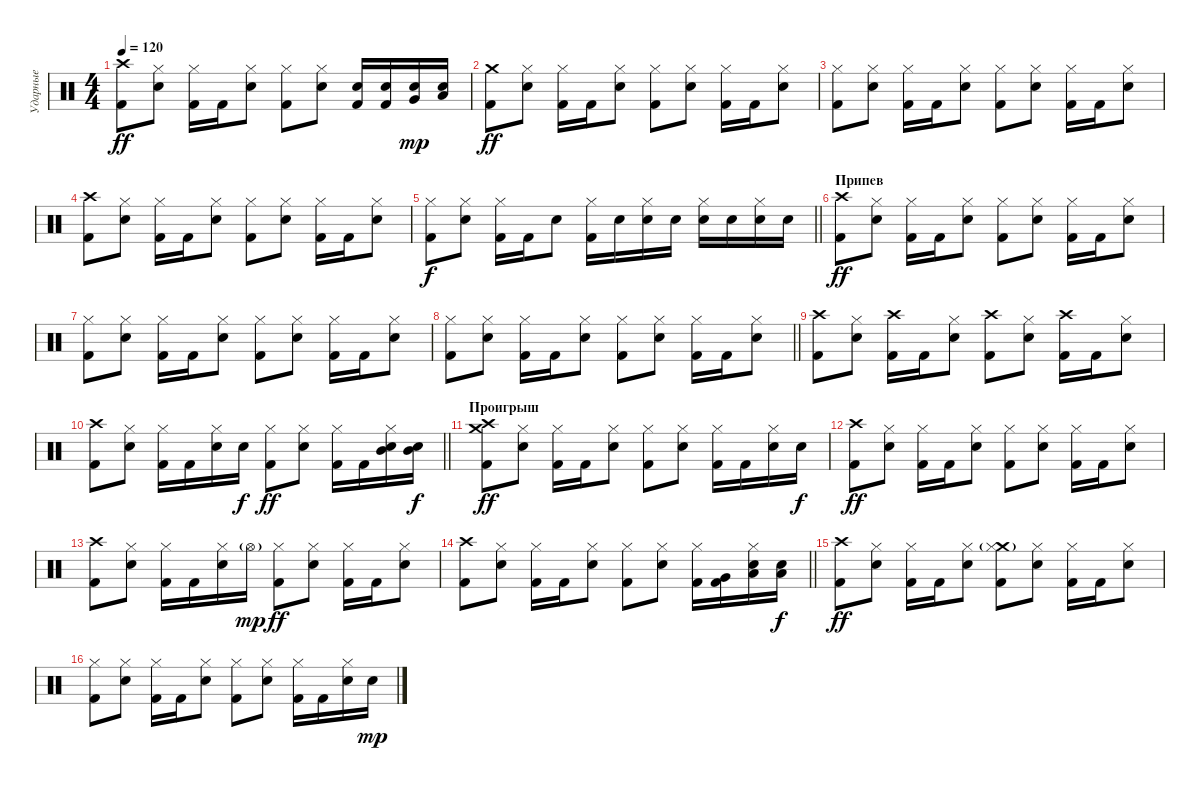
\track ("Ударные" "Ударные") {instrument percussion}
\staff {score}
\articulation defaults
\ts (4 4)
\tempo 120
\clef neutral
\ks c
("Crash high (hit)" "Kick (hit) 2").8{dy ff} ("Hi-Hat (closed)" "Electric Snare (hit)").8 ("Hi-Hat (closed)" "Kick (hit) 2").16 "Kick (hit) 2".16 ("Hi-Hat (closed)" "Electric Snare (hit)").8 ("Hi-Hat (closed)" "Kick (hit) 2").8 ("Hi-Hat (closed)" "Electric Snare (hit)").8 ("Snare (hit) 2" "Kick (hit) 2").16 ("Snare (hit) 2" "Kick (hit) 2").16 ("Snare (hit) 2" "Very Low Tom (hit)").16{dy mp} ("Snare (hit) 2" "Low Floor Tom (hit)").16 |
("Crash medium (hit)" "Kick (hit) 2").8{dy ff} ("Hi-Hat (closed)" "Electric Snare (hit)").8 ("Hi-Hat (closed)" "Kick (hit) 2").16 "Kick (hit) 2".16 ("Hi-Hat (closed)" "Electric Snare (hit)").8 ("Hi-Hat (closed)" "Kick (hit) 2").8 ("Hi-Hat (closed)" "Electric Snare (hit)").8 ("Hi-Hat (closed)" "Kick (hit) 2").16 "Kick (hit) 2".16 ("Hi-Hat (closed)" "Electric Snare (hit)").8 |
("Hi-Hat (closed)" "Kick (hit) 2").8 ("Hi-Hat (closed)" "Electric Snare (hit)").8 ("Hi-Hat (closed)" "Kick (hit) 2").16 "Kick (hit) 2".16 ("Hi-Hat (closed)" "Electric Snare (hit)").8 ("Hi-Hat (closed)" "Kick (hit) 2").8 ("Hi-Hat (closed)" "Electric Snare (hit)").8 ("Hi-Hat (closed)" "Kick (hit) 2").16 "Kick (hit) 2".16 ("Hi-Hat (closed)" "Electric Snare (hit)").8 |
("Crash high (hit)" "Kick (hit) 2").8 ("Hi-Hat (closed)" "Electric Snare (hit)").8 ("Hi-Hat (closed)" "Kick (hit) 2").16 "Kick (hit) 2".16 ("Hi-Hat (closed)" "Electric Snare (hit)").8 ("Hi-Hat (closed)" "Kick (hit) 2").8 ("Hi-Hat (closed)" "Electric Snare (hit)").8 ("Hi-Hat (closed)" "Kick (hit) 2").16 "Kick (hit) 2".16 ("Hi-Hat (closed)" "Electric Snare (hit)").8 |
\barLineRight lightlight
("Hi-Hat (closed)" "Kick (hit) 2").8{dy f} ("Hi-Hat (closed)" "Electric Snare (hit)").8 ("Hi-Hat (closed)" "Kick (hit) 2").16 "Kick (hit) 2".16 "Electric Snare (hit)".8 ("Hi-Hat (closed)" "Kick (hit) 2").16 "Snare (hit) 2".16 ("Hi-Hat (closed)" "Electric Snare (hit)").16 "Electric Snare (hit)".16 ("Hi-Hat (closed)" "Snare (hit) 2").16 "Snare (hit) 2".16 ("Hi-Hat (closed)" "Snare (hit) 2").16 "Snare (hit) 2".16 |
\section ("" "Припев")
("Crash high (hit)" "Kick (hit) 2").8{dy ff} ("Hi-Hat (closed)" "Electric Snare (hit)").8 ("Hi-Hat (closed)" "Kick (hit) 2").16 "Kick (hit) 2".16 ("Hi-Hat (closed)" "Electric Snare (hit)").8 ("Hi-Hat (closed)" "Kick (hit) 2").8 ("Hi-Hat (closed)" "Electric Snare (hit)").8 ("Hi-Hat (closed)" "Kick (hit) 2").16 "Kick (hit) 2".16 ("Hi-Hat (closed)" "Electric Snare (hit)").8 |
("Hi-Hat (closed)" "Kick (hit) 2").8 ("Hi-Hat (closed)" "Electric Snare (hit)").8 ("Hi-Hat (closed)" "Kick (hit) 2").16 "Kick (hit) 2".16 ("Hi-Hat (closed)" "Electric Snare (hit)").8 ("Hi-Hat (closed)" "Kick (hit) 2").8 ("Hi-Hat (closed)" "Electric Snare (hit)").8 ("Hi-Hat (closed)" "Kick (hit) 2").16 "Kick (hit) 2".16 ("Hi-Hat (closed)" "Electric Snare (hit)").8 |
\barLineRight lightlight
("Hi-Hat (closed)" "Kick (hit) 2").8 ("Hi-Hat (closed)" "Electric Snare (hit)").8 ("Hi-Hat (closed)" "Kick (hit) 2").16 "Kick (hit) 2".16 ("Hi-Hat (closed)" "Electric Snare (hit)").8 ("Hi-Hat (closed)" "Kick (hit) 2").8 ("Hi-Hat (closed)" "Electric Snare (hit)").8 ("Hi-Hat (closed)" "Kick (hit) 2").16 "Kick (hit) 2".16 ("Hi-Hat (closed)" "Electric Snare (hit)").8 |
("Crash high (hit)" "Kick (hit) 2").8 ("Hi-Hat (closed)" "Electric Snare (hit)").8 ("Crash high (hit)" "Kick (hit) 2").16 "Kick (hit) 2".16 ("Hi-Hat (closed)" "Electric Snare (hit)").8 ("Crash high (hit)" "Kick (hit) 2").8 ("Hi-Hat (closed)" "Electric Snare (hit)").8 ("Crash high (hit)" "Kick (hit) 2").16 "Kick (hit) 2".16 ("Hi-Hat (closed)" "Electric Snare (hit)").8 |
\barLineRight lightlight
("Crash high (hit)" "Kick (hit) 2").8 ("Hi-Hat (closed)" "Electric Snare (hit)").8 ("Hi-Hat (closed)" "Kick (hit) 2").16 "Kick (hit) 2".16 ("Hi-Hat (closed)" "Electric Snare (hit)").16 "Electric Snare (hit)".16{dy f} ("Hi-Hat (closed)" "Kick (hit) 2").8{dy ff} ("Hi-Hat (closed)" "Electric Snare (hit)").8 ("Hi-Hat (closed)" "Kick (hit) 2").16 "Kick (hit) 2".16 ("Hi-Hat (closed)" "Electric Snare (hit)" "Mid Tom (hit)").16 ("Electric Snare (hit)" "Mid Tom (hit)").16{dy f} |
\section ("" "Проигрыш")
("Crash high (hit)" "Crash medium (hit)" "Kick (hit) 2").8{dy ff} ("Hi-Hat (closed)" "Electric Snare (hit)").8 ("Hi-Hat (closed)" "Kick (hit) 2").16 "Kick (hit) 2".16 ("Hi-Hat (closed)" "Electric Snare (hit)").8 ("Hi-Hat (closed)" "Kick (hit) 2").8 ("Hi-Hat (closed)" "Electric Snare (hit)").8 ("Hi-Hat (closed)" "Kick (hit) 2").16 "Kick (hit) 2".16 ("Hi-Hat (closed)" "Electric Snare (hit)").16 "Electric Snare (hit)".16{dy f} |
("Crash high (hit)" "Kick (hit) 2").8{dy ff} ("Hi-Hat (closed)" "Electric Snare (hit)").8 ("Hi-Hat (closed)" "Kick (hit) 2").16 "Kick (hit) 2".16 ("Hi-Hat (closed)" "Electric Snare (hit)").8 ("Hi-Hat (closed)" "Kick (hit) 2").8 ("Hi-Hat (closed)" "Electric Snare (hit)").8 ("Hi-Hat (closed)" "Kick (hit) 2").16 "Kick (hit) 2".16 ("Hi-Hat (closed)" "Electric Snare (hit)").8 |
("Crash high (hit)" "Kick (hit) 2").8 ("Hi-Hat (closed)" "Electric Snare (hit)").8 ("Hi-Hat (closed)" "Kick (hit) 2").16 "Kick (hit) 2".16 ("Hi-Hat (closed)" "Electric Snare (hit)").16 "Hi-Hat (open)"{g}.16{dy mp} ("Hi-Hat (closed)" "Kick (hit) 2").8{dy ff} ("Hi-Hat (closed)" "Electric Snare (hit)").8 ("Hi-Hat (closed)" "Kick (hit) 2").16 "Kick (hit) 2".16 ("Hi-Hat (closed)" "Electric Snare (hit)").8 |
\barLineRight lightlight
("Crash high (hit)" "Kick (hit) 2").8 ("Hi-Hat (closed)" "Electric Snare (hit)").8 ("Hi-Hat (closed)" "Kick (hit) 2").16 "Kick (hit) 2".16 ("Hi-Hat (closed)" "Electric Snare (hit)").8 ("Hi-Hat (closed)" "Kick (hit) 2").8 ("Hi-Hat (closed)" "Electric Snare (hit)").8 ("Hi-Hat (closed)" "Kick (hit) 2").16 ("Very Low Tom (hit)" "Kick (hit) 2").16 ("Hi-Hat (closed)" "Electric Snare (hit)" "Low Floor Tom (hit)").16 ("Snare (hit) 2" "Low Tom (hit)").16{dy f} |
("Crash high (hit)" "Kick (hit) 2").8{dy ff} ("Hi-Hat (closed)" "Electric Snare (hit)").8 ("Hi-Hat (closed)" "Kick (hit) 2").16 "Kick (hit) 2".16 ("Hi-Hat (closed)" "Electric Snare (hit)").8 ("Crash medium (hit)"{g} "Hi-Hat (closed)" "Kick (hit) 2").8 ("Hi-Hat (closed)" "Electric Snare (hit)").8 ("Hi-Hat (closed)" "Kick (hit) 2").16 "Kick (hit) 2".16 ("Hi-Hat (closed)" "Electric Snare (hit)").8 |
("Hi-Hat (closed)" "Kick (hit) 2").8 ("Hi-Hat (closed)" "Electric Snare (hit)").8 ("Hi-Hat (closed)" "Kick (hit) 2").16 "Kick (hit) 2".16 ("Hi-Hat (closed)" "Electric Snare (hit)").8 ("Hi-Hat (closed)" "Kick (hit) 2").8 ("Hi-Hat (closed)" "Electric Snare (hit)").8 ("Hi-Hat (closed)" "Kick (hit) 2").16 "Kick (hit) 2".16 ("Hi-Hat (closed)" "Electric Snare (hit)").16 "Electric Snare (hit)".16{dy mp}
